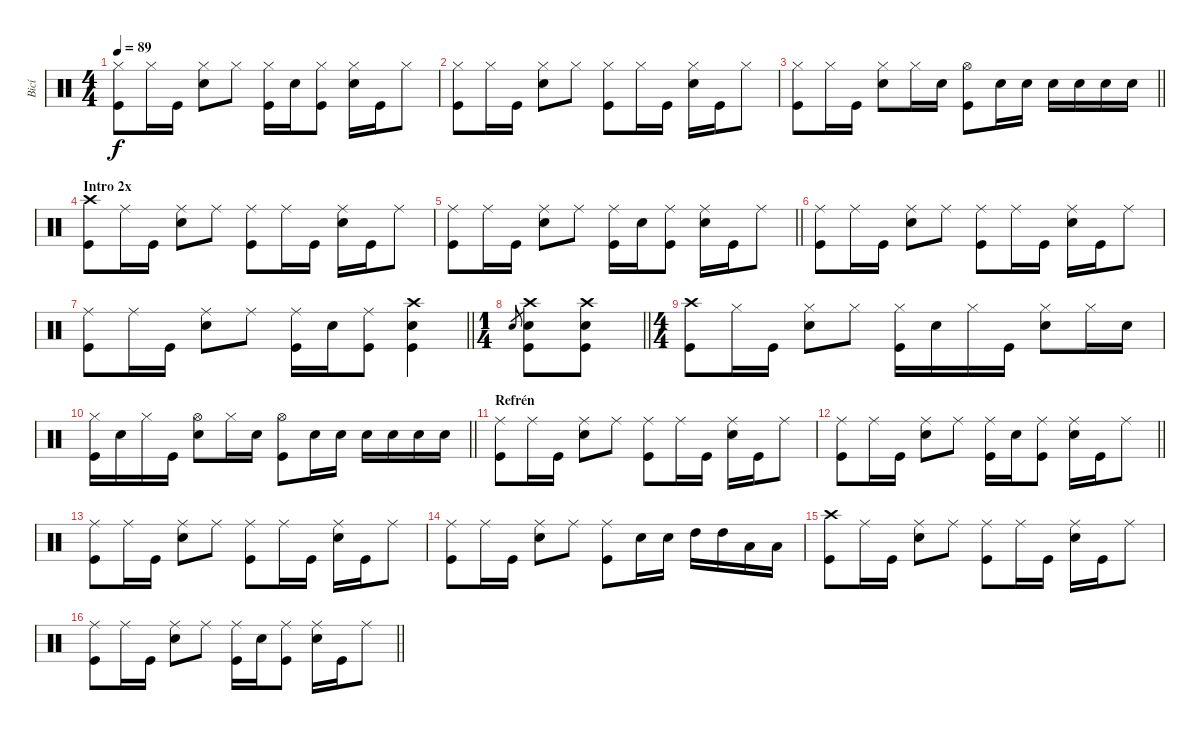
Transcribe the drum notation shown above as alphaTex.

\track ("Bicí" "Bicí") {instrument percussion}
\staff {score}
\articulation defaults
\ts (4 4)
\tempo 89
\clef neutral
\ks c
("Kick (hit)" "Hi-Hat (closed)").8{dy f} "Hi-Hat (closed)".16{beam merge} "Kick (hit)".16 ("Snare (hit) 2" "Hi-Hat (closed)").8{beam Down} "Hi-Hat (closed)".8{beam Down} ("Kick (hit)" "Hi-Hat (closed)").16{beam Down} "Snare (hit) 2".16{beam Down} ("Hi-Hat (closed)" "Kick (hit)").8{beam Down} ("Hi-Hat (closed)" "Snare (hit) 2").16{beam Down} "Kick (hit)".16{beam Down} "Hi-Hat (closed)".8{beam Down} |
("Kick (hit)" "Hi-Hat (closed)").8 "Hi-Hat (closed)".16{beam merge} "Kick (hit)".16 ("Hi-Hat (closed)" "Snare (hit) 2").8{beam Down} "Hi-Hat (closed)".8{beam Down} ("Kick (hit)" "Hi-Hat (closed)").8 "Hi-Hat (closed)".16{beam merge} "Kick (hit)".16 ("Hi-Hat (closed)" "Snare (hit) 2").16{beam Down} "Kick (hit)".16{beam Down} "Hi-Hat (closed)".8{beam Down} |
\barLineRight lightlight
("Kick (hit)" "Hi-Hat (closed)").8 "Hi-Hat (closed)".16{beam merge} "Kick (hit)".16 ("Snare (hit) 2" "Hi-Hat (closed)").8 "Hi-Hat (closed)".16 "Snare (hit) 2".16 ("Kick (hit)" "Hi-Hat (open)").8{beam Down} "Snare (hit) 2".16{beam Down} "Snare (hit) 2".16{beam Down} "Snare (hit) 2".16{beam Down} "Snare (hit) 2".16{beam Down} "Snare (hit) 2".16{beam Down} "Snare (hit) 2".16{beam Down} |
\section ("" "Intro 2x")
("Kick (hit)" "Crash high (hit)").8 "Ride (middle)".16{beam merge} "Kick (hit)".16 ("Snare (hit) 2" "Ride (middle)").8{beam Down} "Ride (middle)".8{beam Down} ("Kick (hit)" "Ride (middle)").8 "Ride (middle)".16{beam merge} "Kick (hit)".16 ("Ride (middle)" "Snare (hit) 2").16{beam Down} "Kick (hit)".16{beam Down} "Ride (middle)".8{beam Down} |
\barLineRight lightlight
("Kick (hit)" "Ride (middle)").8 "Ride (middle)".16{beam merge} "Kick (hit)".16 ("Snare (hit) 2" "Ride (middle)").8 "Ride (middle)".8 ("Kick (hit)" "Ride (middle)").16 "Snare (hit) 2".16 ("Ride (middle)" "Kick (hit)").8 ("Ride (middle)" "Snare (hit) 2").16 "Kick (hit)".16 "Ride (middle)".8 |
("Kick (hit)" "Ride (middle)").8 "Ride (middle)".16{beam merge} "Kick (hit)".16 ("Snare (hit) 2" "Ride (middle)").8{beam Down} "Ride (middle)".8{beam Down} ("Kick (hit)" "Ride (middle)").8 "Ride (middle)".16{beam merge} "Kick (hit)".16 ("Ride (middle)" "Snare (hit) 2").16{beam Down} "Kick (hit)".16{beam Down} "Ride (middle)".8{beam Down} |
\barLineRight lightlight
("Kick (hit)" "Ride (middle)").8 "Ride (middle)".16{beam merge} "Kick (hit)".16 ("Snare (hit) 2" "Ride (middle)").8 "Ride (middle)".8 ("Kick (hit)" "Ride (middle)").16 "Snare (hit) 2".16 ("Ride (middle)" "Kick (hit)").8 ("Kick (hit)" "Snare (hit) 2" "Crash high (hit)").4 |
\ts (1 4)
\barLineRight lightlight "Snare (hit) 2".8{gr}
("Crash high (hit)" "Kick (hit)" "Snare (hit) 2").8 ("Crash high (hit)" "Kick (hit)" "Snare (hit) 2").8 |
\ts (4 4)
("Kick (hit)" "Crash high (hit)").8 "Hi-Hat (closed)".16{beam merge} "Kick (hit)".16 ("Hi-Hat (closed)" "Snare (hit) 2").8{beam Down} "Hi-Hat (closed)".8{beam Down} ("Kick (hit)" "Hi-Hat (closed)").16 "Snare (hit) 2".16 "Hi-Hat (closed)".16 "Kick (hit)".16 ("Snare (hit) 2" "Hi-Hat (closed)").8 "Hi-Hat (closed)".16 "Snare (hit) 2".16 |
\barLineRight lightlight
("Kick (hit)" "Hi-Hat (closed)").16 "Snare (hit) 2".16 "Hi-Hat (closed)".16 "Kick (hit)".16 ("Snare (hit) 2" "Hi-Hat (open)").8 "Hi-Hat (closed)".16 "Snare (hit) 2".16 ("Kick (hit)" "Hi-Hat (open)").8{beam Down} "Snare (hit) 2".16{beam Down} "Snare (hit) 2".16{beam Down} "Snare (hit) 2".16{beam Down} "Snare (hit) 2".16{beam Down} "Snare (hit) 2".16{beam Down} "Snare (hit) 2".16{beam Down} |
\section ("" "Refrén")
("Kick (hit)" "Ride (middle)").8 "Ride (middle)".16{beam merge} "Kick (hit)".16 ("Snare (hit) 2" "Ride (middle)").8{beam Down} "Ride (middle)".8{beam Down} ("Kick (hit)" "Ride (middle)").8 "Ride (middle)".16{beam merge} "Kick (hit)".16 ("Ride (middle)" "Snare (hit) 2").16{beam Down} "Kick (hit)".16{beam Down} "Ride (middle)".8{beam Down} |
\barLineRight lightlight
("Kick (hit)" "Ride (middle)").8 "Ride (middle)".16{beam merge} "Kick (hit)".16 ("Snare (hit) 2" "Ride (middle)").8 "Ride (middle)".8 ("Kick (hit)" "Ride (middle)").16 "Snare (hit) 2".16 ("Ride (middle)" "Kick (hit)").8 ("Ride (middle)" "Snare (hit) 2").16 "Kick (hit)".16 "Ride (middle)".8 |
("Kick (hit)" "Ride (middle)").8 "Ride (middle)".16{beam merge} "Kick (hit)".16 ("Snare (hit) 2" "Ride (middle)").8{beam Down} "Ride (middle)".8{beam Down} ("Kick (hit)" "Ride (middle)").8 "Ride (middle)".16{beam merge} "Kick (hit)".16 ("Ride (middle)" "Snare (hit) 2").16{beam Down} "Kick (hit)".16{beam Down} "Ride (middle)".8{beam Down} |
("Kick (hit)" "Ride (middle)").8 "Ride (middle)".16{beam merge} "Kick (hit)".16 ("Snare (hit) 2" "Ride (middle)").8 "Ride (middle)".8 ("Kick (hit)" "Ride (middle)").8 "Snare (hit) 2".16 "Snare (hit) 2".16 "High Tom (hit)".16 "High Tom (hit)".16 "Low Tom (hit)".16 "Low Tom (hit)".16 |
("Kick (hit)" "Crash high (hit)").8 "Ride (middle)".16{beam merge} "Kick (hit)".16 ("Snare (hit) 2" "Ride (middle)").8{beam Down} "Ride (middle)".8{beam Down} ("Kick (hit)" "Ride (middle)").8 "Ride (middle)".16{beam merge} "Kick (hit)".16 ("Ride (middle)" "Snare (hit) 2").16{beam Down} "Kick (hit)".16{beam Down} "Ride (middle)".8{beam Down} |
\barLineRight lightlight
("Kick (hit)" "Ride (middle)").8 "Ride (middle)".16{beam merge} "Kick (hit)".16 ("Snare (hit) 2" "Ride (middle)").8 "Ride (middle)".8 ("Kick (hit)" "Ride (middle)").16 "Snare (hit) 2".16 ("Ride (middle)" "Kick (hit)").8 ("Ride (middle)" "Snare (hit) 2").16 "Kick (hit)".16 "Ride (middle)".8
